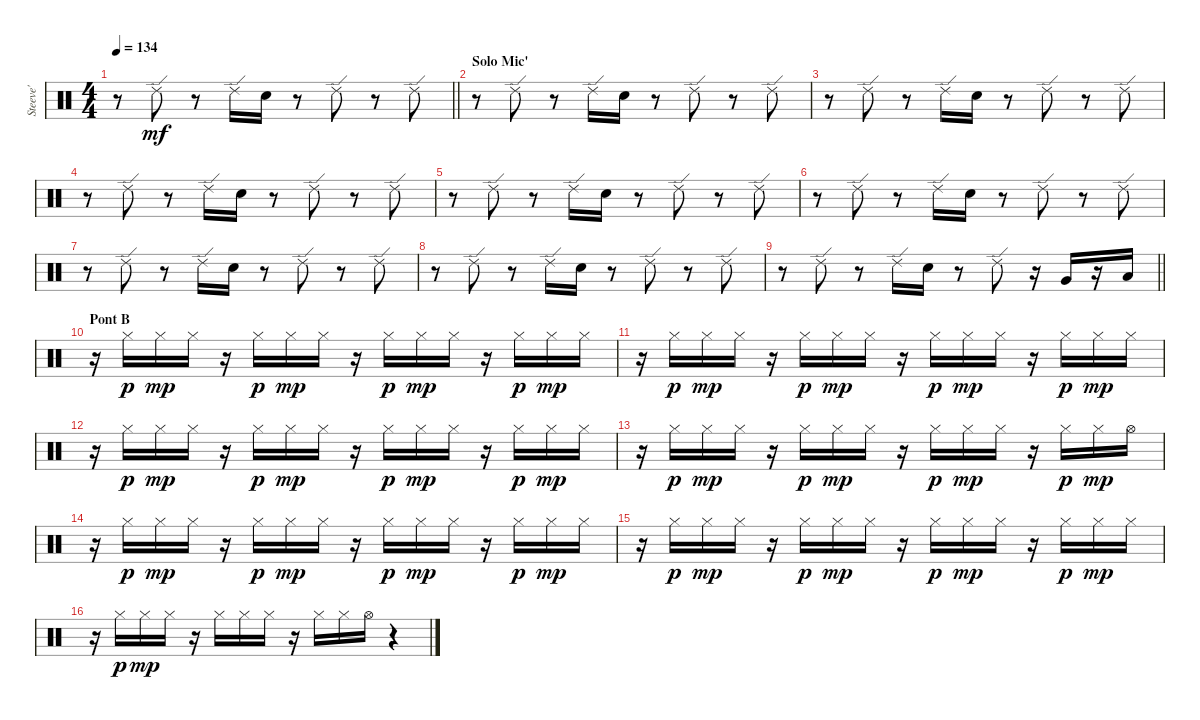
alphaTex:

\track ("Steeve'" "Steeve'") {instrument percussion}
\staff {score}
\articulation defaults
\ts (4 4)
\tempo 134
\clef neutral
\barLineRight lightlight
\ks c
r.8{dy mf} "Ride (edge) 2".8 r.8 "Ride (edge) 2".16 "Electric Snare (hit)".16 r.8 "Ride (edge) 2".8 r.8 "Ride (edge) 2".8 |
\section ("" "Solo Mic'")
r.8 "Ride (edge) 2".8 r.8 "Ride (edge) 2".16 "Electric Snare (hit)".16 r.8 "Ride (edge) 2".8 r.8 "Ride (edge) 2".8 |
r.8 "Ride (edge) 2".8 r.8 "Ride (edge) 2".16 "Electric Snare (hit)".16 r.8 "Ride (edge) 2".8 r.8 "Ride (edge) 2".8 |
r.8 "Ride (edge) 2".8 r.8 "Ride (edge) 2".16 "Electric Snare (hit)".16 r.8 "Ride (edge) 2".8 r.8 "Ride (edge) 2".8 |
r.8 "Ride (edge) 2".8 r.8 "Ride (edge) 2".16 "Electric Snare (hit)".16 r.8 "Ride (edge) 2".8 r.8 "Ride (edge) 2".8 |
r.8 "Ride (edge) 2".8 r.8 "Ride (edge) 2".16 "Electric Snare (hit)".16 r.8 "Ride (edge) 2".8 r.8 "Ride (edge) 2".8 |
r.8 "Ride (edge) 2".8 r.8 "Ride (edge) 2".16 "Electric Snare (hit)".16 r.8 "Ride (edge) 2".8 r.8 "Ride (edge) 2".8 |
r.8 "Ride (edge) 2".8 r.8 "Ride (edge) 2".16 "Electric Snare (hit)".16 r.8 "Ride (edge) 2".8 r.8 "Ride (edge) 2".8 |
\barLineRight lightlight
r.8 "Ride (edge) 2".8 r.8 "Ride (edge) 2".16 "Electric Snare (hit)".16 r.8 "Ride (edge) 2".8 r.16 "Very Low Tom (hit)".16 r.16 "Low Floor Tom (hit)".16 |
\section ("" "Pont B")
r.16 "Hi-Hat (closed)".16{dy p} "Hi-Hat (closed)".16{dy mp} "Hi-Hat (closed)".16 r.16 "Hi-Hat (closed)".16{dy p} "Hi-Hat (closed)".16{dy mp} "Hi-Hat (closed)".16 r.16 "Hi-Hat (closed)".16{dy p} "Hi-Hat (closed)".16{dy mp} "Hi-Hat (closed)".16 r.16 "Hi-Hat (closed)".16{dy p} "Hi-Hat (closed)".16{dy mp} "Hi-Hat (closed)".16 |
r.16 "Hi-Hat (closed)".16{dy p} "Hi-Hat (closed)".16{dy mp} "Hi-Hat (closed)".16 r.16 "Hi-Hat (closed)".16{dy p} "Hi-Hat (closed)".16{dy mp} "Hi-Hat (closed)".16 r.16 "Hi-Hat (closed)".16{dy p} "Hi-Hat (closed)".16{dy mp} "Hi-Hat (closed)".16 r.16 "Hi-Hat (closed)".16{dy p} "Hi-Hat (closed)".16{dy mp} "Hi-Hat (closed)".16 |
r.16 "Hi-Hat (closed)".16{dy p} "Hi-Hat (closed)".16{dy mp} "Hi-Hat (closed)".16 r.16 "Hi-Hat (closed)".16{dy p} "Hi-Hat (closed)".16{dy mp} "Hi-Hat (closed)".16 r.16 "Hi-Hat (closed)".16{dy p} "Hi-Hat (closed)".16{dy mp} "Hi-Hat (closed)".16 r.16 "Hi-Hat (closed)".16{dy p} "Hi-Hat (closed)".16{dy mp} "Hi-Hat (closed)".16 |
r.16 "Hi-Hat (closed)".16{dy p} "Hi-Hat (closed)".16{dy mp} "Hi-Hat (closed)".16 r.16 "Hi-Hat (closed)".16{dy p} "Hi-Hat (closed)".16{dy mp} "Hi-Hat (closed)".16 r.16 "Hi-Hat (closed)".16{dy p} "Hi-Hat (closed)".16{dy mp} "Hi-Hat (closed)".16 r.16 "Hi-Hat (closed)".16{dy p} "Hi-Hat (closed)".16{dy mp} "Hi-Hat (open)".16 |
r.16 "Hi-Hat (closed)".16{dy p} "Hi-Hat (closed)".16{dy mp} "Hi-Hat (closed)".16 r.16 "Hi-Hat (closed)".16{dy p} "Hi-Hat (closed)".16{dy mp} "Hi-Hat (closed)".16 r.16 "Hi-Hat (closed)".16{dy p} "Hi-Hat (closed)".16{dy mp} "Hi-Hat (closed)".16 r.16 "Hi-Hat (closed)".16{dy p} "Hi-Hat (closed)".16{dy mp} "Hi-Hat (closed)".16 |
r.16 "Hi-Hat (closed)".16{dy p} "Hi-Hat (closed)".16{dy mp} "Hi-Hat (closed)".16 r.16 "Hi-Hat (closed)".16{dy p} "Hi-Hat (closed)".16{dy mp} "Hi-Hat (closed)".16 r.16 "Hi-Hat (closed)".16{dy p} "Hi-Hat (closed)".16{dy mp} "Hi-Hat (closed)".16 r.16 "Hi-Hat (closed)".16{dy p} "Hi-Hat (closed)".16{dy mp} "Hi-Hat (closed)".16 |
r.16 "Hi-Hat (closed)".16{dy p} "Hi-Hat (closed)".16{dy mp} "Hi-Hat (closed)".16 r.16 "Hi-Hat (closed)".16 "Hi-Hat (closed)".16 "Hi-Hat (closed)".16 r.16 "Hi-Hat (closed)".16 "Hi-Hat (closed)".16 "Hi-Hat (open)".16 r.4
